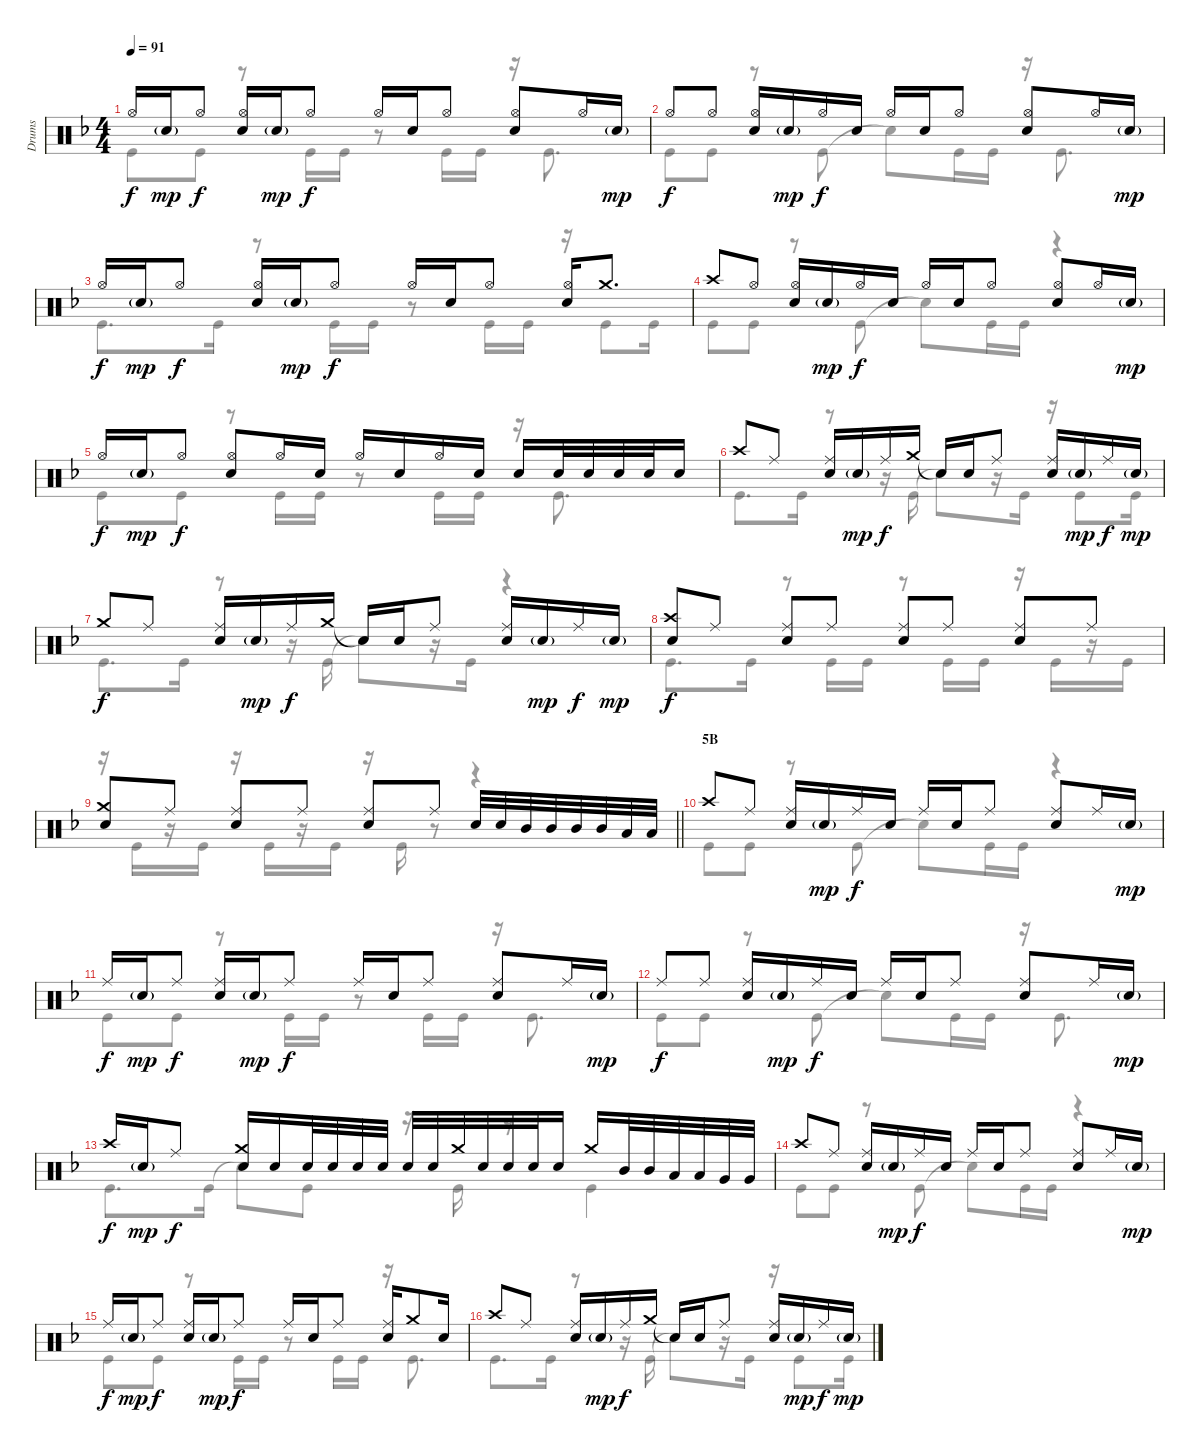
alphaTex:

\track ("Drums" "Drums") {instrument percussion}
\staff {score}
\articulation defaults
\voice
\ts (4 4)
\tempo 91
\clef neutral
\ks f "Hi-Hat (open)".16{dy f} "Snare (hit) 2"{g}.16{dy mp} "Hi-Hat (open)".8{dy f}
("Hi-Hat (open)" "Snare (hit) 2").16 "Snare (hit) 2"{g}.16{dy mp} "Hi-Hat (open)".8{dy f} "Hi-Hat (open)".16 "Snare (hit) 2".16 "Hi-Hat (open)".8 ("Hi-Hat (open)" "Snare (hit) 2").8 "Hi-Hat (open)".16 "Snare (hit) 2"{g}.16{dy mp} |
"Hi-Hat (open)".8{dy f} "Hi-Hat (open)".8 ("Hi-Hat (open)" "Snare (hit) 2").16 "Snare (hit) 2"{g}.16{dy mp} "Hi-Hat (open)".16{dy f} "Snare (hit) 2".16 "Hi-Hat (open)".16 "Snare (hit) 2".16 "Hi-Hat (open)".8 ("Hi-Hat (open)" "Snare (hit) 2").8 "Hi-Hat (open)".16 "Snare (hit) 2"{g}.16{dy mp} |
"Hi-Hat (open)".16{dy f} "Snare (hit) 2"{g}.16{dy mp} "Hi-Hat (open)".8{dy f} ("Hi-Hat (open)" "Snare (hit) 2").16 "Snare (hit) 2"{g}.16{dy mp} "Hi-Hat (open)".8{dy f} "Hi-Hat (open)".16 "Snare (hit) 2".16 "Hi-Hat (open)".8 ("Hi-Hat (open)" "Snare (hit) 2").16 "Crash medium (hit)".8{d} |
"Crash high (hit)".8 "Hi-Hat (open)".8 ("Hi-Hat (open)" "Snare (hit) 2").16 "Snare (hit) 2"{g}.16{dy mp} "Hi-Hat (open)".16{dy f} "Snare (hit) 2".16 "Hi-Hat (open)".16 "Snare (hit) 2".16 "Hi-Hat (open)".8 ("Hi-Hat (open)" "Snare (hit) 2").8 "Hi-Hat (open)".16 "Snare (hit) 2"{g}.16{dy mp} |
"Hi-Hat (open)".16{dy f} "Snare (hit) 2"{g}.16{dy mp} "Hi-Hat (open)".8{dy f} ("Hi-Hat (open)" "Snare (hit) 2").8 "Hi-Hat (open)".16 "Snare (hit) 2".16 "Hi-Hat (open)".16 "Snare (hit) 2".16 "Hi-Hat (open)".16 "Snare (hit) 2".16 "Snare (hit) 2".16 "Snare (hit) 2".32 "Snare (hit) 2".32 "Snare (hit) 2".32 "Snare (hit) 2".32 "Snare (hit) 2".16 |
"Crash high (hit)".8 "Ride (middle)".8 ("Ride (middle)" "Snare (hit) 2").16 "Snare (hit) 2"{g}.16{dy mp} "Ride (middle)".16{dy f} "Crash medium (hit)".16 "Snare (hit)"{t}.16 "Snare (hit) 2".16 "Ride (middle)".8 ("Ride (middle)" "Snare (hit) 2").16 "Snare (hit) 2"{g}.16{dy mp} "Ride (middle)".16{dy f} "Snare (hit) 2"{g}.16{dy mp} |
"Crash medium (hit)".8{dy f} "Ride (middle)".8 ("Ride (middle)" "Snare (hit) 2").16 "Snare (hit) 2"{g}.16{dy mp} "Ride (middle)".16{dy f} "Crash medium (hit)".16 "Snare (hit)"{t}.16 "Snare (hit) 2".16 "Ride (middle)".8 ("Ride (middle)" "Snare (hit) 2").16 "Snare (hit) 2"{g}.16{dy mp} "Ride (middle)".16{dy f} "Snare (hit) 2"{g}.16{dy mp} |
("Crash high (hit)" "Snare (hit) 2").8{dy f} "Ride (middle)".8 ("Ride (middle)" "Snare (hit) 2").8 "Ride (middle)".8 ("Ride (middle)" "Snare (hit) 2").8 "Ride (middle)".8 ("Ride (middle)" "Snare (hit) 2").8 "Ride (middle)".8 |
\barLineRight lightlight
("Crash medium (hit)" "Snare (hit) 2").8 "Ride (middle)".8 ("Ride (middle)" "Snare (hit) 2").8 "Ride (middle)".8 ("Ride (middle)" "Snare (hit) 2").8 "Ride (middle)".8 "Snare (hit) 2".32 "Snare (hit) 2".32 "Mid Tom (hit)".32 "Mid Tom (hit)".32 "Mid Tom (hit)".32 "Mid Tom (hit)".32 "Low Tom (hit)".32 "Low Tom (hit)".32 |
\section ("" "5B")
"Crash high (hit)".8 "Ride (middle)".8 ("Ride (middle)" "Snare (hit) 2").16 "Snare (hit) 2"{g}.16{dy mp} "Ride (middle)".16{dy f} "Snare (hit) 2".16 "Ride (middle)".16 "Snare (hit) 2".16 "Ride (middle)".8 ("Ride (middle)" "Snare (hit) 2").8 "Ride (middle)".16 "Snare (hit) 2"{g}.16{dy mp} |
"Ride (middle)".16{dy f} "Snare (hit) 2"{g}.16{dy mp} "Ride (middle)".8{dy f} ("Ride (middle)" "Snare (hit) 2").16 "Snare (hit) 2"{g}.16{dy mp} "Ride (middle)".8{dy f} "Ride (middle)".16 "Snare (hit) 2".16 "Ride (middle)".8 ("Ride (middle)" "Snare (hit) 2").8 "Ride (middle)".16 "Snare (hit) 2"{g}.16{dy mp} |
"Ride (middle)".8{dy f} "Ride (middle)".8 ("Ride (middle)" "Snare (hit) 2").16 "Snare (hit) 2"{g}.16{dy mp} "Ride (middle)".16{dy f} "Snare (hit) 2".16 "Ride (middle)".16 "Snare (hit) 2".16 "Ride (middle)".8 ("Ride (middle)" "Snare (hit) 2").8 "Ride (middle)".16 "Snare (hit) 2"{g}.16{dy mp} |
"Crash high (hit)".16{dy f} "Snare (hit) 2"{g}.16{dy mp} "Ride (middle)".8{dy f} ("Crash medium (hit)" "Snare (hit) 2").16 "Snare (hit) 2".16 "Snare (hit) 2".32 "Snare (hit) 2".32 "Snare (hit) 2".32 "Snare (hit) 2".32 "Snare (hit) 2".32 "Snare (hit) 2".32 "Crash medium (hit)".32 "Snare (hit) 2".32 "Snare (hit) 2".32 "Snare (hit) 2".32 "Snare (hit) 2".16 "Crash medium (hit)".16 "Mid Tom (hit)".32 "Mid Tom (hit)".32 "Low Tom (hit)".32 "Low Tom (hit)".32 "Very Low Tom (hit)".32 "Very Low Tom (hit)".32 |
"Crash high (hit)".8 "Ride (middle)".8 ("Ride (middle)" "Snare (hit) 2").16 "Snare (hit) 2"{g}.16{dy mp} "Ride (middle)".16{dy f} "Snare (hit) 2".16 "Ride (middle)".16 "Snare (hit) 2".16 "Ride (middle)".8 ("Ride (middle)" "Snare (hit) 2").8 "Ride (middle)".16 "Snare (hit) 2"{g}.16{dy mp} |
"Ride (middle)".16{dy f} "Snare (hit) 2"{g}.16{dy mp} "Ride (middle)".8{dy f} ("Ride (middle)" "Snare (hit) 2").16 "Snare (hit) 2"{g}.16{dy mp} "Ride (middle)".8{dy f} "Ride (middle)".16 "Snare (hit) 2".16 "Ride (middle)".8 ("Ride (middle)" "Snare (hit) 2").16 "Crash medium (hit)".8 "Snare (hit) 2".16 |
"Crash high (hit)".8 "Ride (middle)".8 ("Ride (middle)" "Snare (hit) 2").16 "Snare (hit) 2"{g}.16{dy mp} "Ride (middle)".16{dy f} "Crash medium (hit)".16 "Snare (hit)"{t}.16 "Snare (hit) 2".16 "Ride (middle)".8 ("Ride (middle)" "Snare (hit) 2").16 "Snare (hit) 2"{g}.16{dy mp} "Ride (middle)".16{dy f} "Snare (hit) 2"{g}.16{dy mp}
\voice
\clef neutral
\ottava regular
\simile none
\ks f "Kick (hit)".8{dy f} "Kick (hit)".8
r.8 "Kick (hit)".16 "Kick (hit)".16 r.8 "Kick (hit)".16 "Kick (hit)".16 r.16 "Kick (hit)".8{d} |
"Kick (hit)".8 "Kick (hit)".8 r.8 "Kick (hit)".8 "Snare (hit)"{t}.8 "Kick (hit)".16 "Kick (hit)".16 r.16 "Kick (hit)".8{d} |
"Kick (hit)".8{d} "Kick (hit)".16 r.8 "Kick (hit)".16 "Kick (hit)".16 r.8 "Kick (hit)".16 "Kick (hit)".16 r.16 "Kick (hit)".8 "Kick (hit)".16 |
"Kick (hit)".8 "Kick (hit)".8 r.8 "Kick (hit)".8 "Snare (hit)"{t}.8 "Kick (hit)".16 "Kick (hit)".16 r.4 |
"Kick (hit)".8 "Kick (hit)".8 r.8 "Kick (hit)".16 "Kick (hit)".16 r.8 "Kick (hit)".16 "Kick (hit)".16 r.16 "Kick (hit)".8{d} |
"Kick (hit)".8{d} "Kick (hit)".16 r.8 r.16 "Kick (hit)".16 "Snare (hit)"{t}.8 r.16 "Kick (hit)".16 r.16 "Kick (hit)".8 "Kick (hit)".16 |
"Kick (hit)".8{d} "Kick (hit)".16 r.8 r.16 "Kick (hit)".16 "Snare (hit)"{t}.8 r.16 "Kick (hit)".16 r.4 |
"Kick (hit)".8{d} "Kick (hit)".16 r.8 "Kick (hit)".16 "Kick (hit)".16 r.8 "Kick (hit)".16 "Kick (hit)".16 r.16 "Kick (hit)".16 r.16 "Kick (hit)".16 |
\barLineRight lightlight
r.16 "Kick (hit)".16 r.16 "Kick (hit)".16 r.16 "Kick (hit)".16 r.16 "Kick (hit)".16 r.16 "Kick (hit)".16 r.8 r.4 |
"Kick (hit)".8 "Kick (hit)".8 r.8 "Kick (hit)".8 "Snare (hit)"{t}.8 "Kick (hit)".16 "Kick (hit)".16 r.4 |
"Kick (hit)".8 "Kick (hit)".8 r.8 "Kick (hit)".16 "Kick (hit)".16 r.8 "Kick (hit)".16 "Kick (hit)".16 r.16 "Kick (hit)".8{d} |
"Kick (hit)".8 "Kick (hit)".8 r.8 "Kick (hit)".8 "Snare (hit)"{t}.8 "Kick (hit)".16 "Kick (hit)".16 r.16 "Kick (hit)".8{d} |
"Kick (hit)".8{d} "Kick (hit)".16 "Snare (hit)"{t}.8 "Kick (hit)".8 r.16 "Kick (hit)".16 r.8 "Kick (hit)".4 |
"Kick (hit)".8 "Kick (hit)".8 r.8 "Kick (hit)".8 "Snare (hit)"{t}.8 "Kick (hit)".16 "Kick (hit)".16 r.4 |
"Kick (hit)".8 "Kick (hit)".8 r.8 "Kick (hit)".16 "Kick (hit)".16 r.8 "Kick (hit)".16 "Kick (hit)".16 r.16 "Kick (hit)".8{d} |
"Kick (hit)".8{d} "Kick (hit)".16 r.8 r.16 "Kick (hit)".16 "Snare (hit)"{t}.8 r.16 "Kick (hit)".16 r.16 "Kick (hit)".8 "Kick (hit)".16
